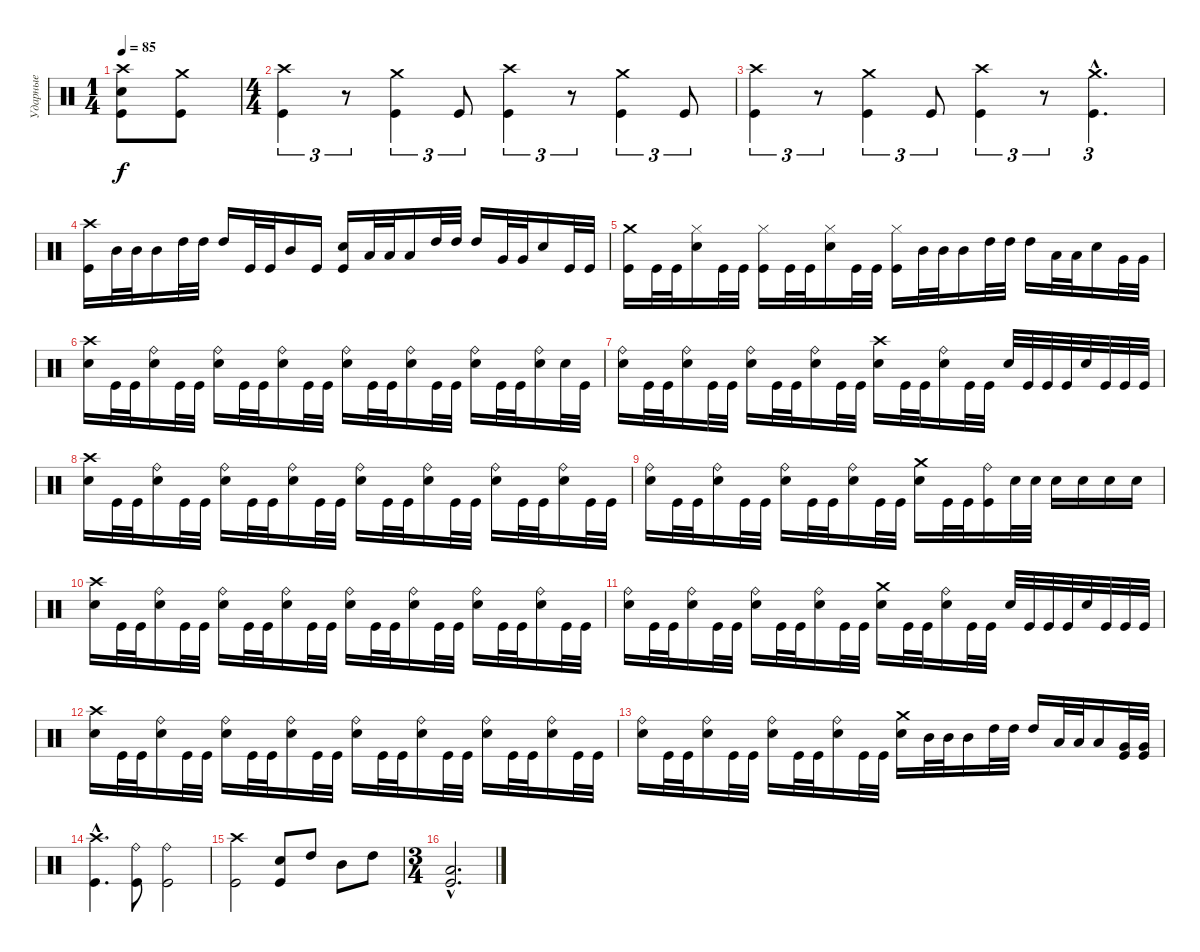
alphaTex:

\track ("Ударные" "Ударные") {instrument percussion}
\staff {score}
\articulation defaults
\ts (1 4)
\tempo 85
\clef neutral
\ks c
("Crash high (hit)" "Electric Snare (hit)" "Kick (hit)").8{dy f} ("Crash medium (hit)" "Kick (hit)").8 |
\ts (4 4)
("Crash high (hit)" "Kick (hit)").4{tu (3 2)} r.8{tu (3 2)} ("Crash medium (hit)" "Kick (hit)").4{tu (3 2)} "Kick (hit)".8{tu (3 2)} ("Crash high (hit)" "Kick (hit)").4{tu (3 2)} r.8{tu (3 2)} ("Crash medium (hit)" "Kick (hit)").4{tu (3 2)} "Kick (hit)".8{tu (3 2)} |
("Crash high (hit)" "Kick (hit)").4{tu (3 2)} r.8{tu (3 2)} ("Crash medium (hit)" "Kick (hit)").4{tu (3 2)} "Kick (hit)".8{tu (3 2)} ("Crash high (hit)" "Kick (hit)").4{tu (3 2)} r.8{tu (3 2)} ("Crash medium (hit)"{hac} "Kick (hit)"{hac}).4{d tu (3 2)} |
("Crash high (hit)" "Kick (hit)").16 "Mid Tom (hit)".32 "Mid Tom (hit)".32 "Mid Tom (hit)".16 "High Tom (hit)".32 "High Tom (hit)".32 "High Tom (hit)".16 "Kick (hit)".32 "Kick (hit)".32 "Mid Tom (hit)".16 "Kick (hit)".16 ("Electric Snare (hit)" "Kick (hit)").16 "Low Tom (hit)".32 "Low Tom (hit)".32 "Low Tom (hit)".16 "High Tom (hit)".32 "High Tom (hit)".32 "High Tom (hit)".16 "Very Low Tom (hit)".32 "Very Low Tom (hit)".32 "Electric Snare (hit)".16 "Kick (hit)".32 "Kick (hit)".32 |
("Crash medium (hit)" "Kick (hit)").16 "Kick (hit)".32 "Kick (hit)".32 ("Hi-Hat (closed)" "Electric Snare (hit)").16 "Kick (hit)".32 "Kick (hit)".32 ("Hi-Hat (closed)" "Kick (hit)").16 "Kick (hit)".32 "Kick (hit)".32 ("Hi-Hat (closed)" "Electric Snare (hit)").16 "Kick (hit)".32 "Kick (hit)".32 ("Hi-Hat (closed)" "Kick (hit)").16 "Mid Tom (hit)".32 "Mid Tom (hit)".32 "Mid Tom (hit)".16 "High Tom (hit)".32 "High Tom (hit)".32 "High Tom (hit)".16 "Low Tom (hit)".32 "Low Tom (hit)".32 "Electric Snare (hit)".16 "Very Low Tom (hit)".32 "Very Low Tom (hit)".32 |
("Crash high (hit)" "Electric Snare (hit)").16 "Kick (hit)".32 "Kick (hit)".32 ("Ride (bell)" "Electric Snare (hit)").16 "Kick (hit)".32 "Kick (hit)".32 ("Ride (bell)" "Electric Snare (hit)").16 "Kick (hit)".32 "Kick (hit)".32 ("Ride (bell)" "Electric Snare (hit)").16 "Kick (hit)".32 "Kick (hit)".32 ("Ride (bell)" "Electric Snare (hit)").16 "Kick (hit)".32 "Kick (hit)".32 ("Ride (bell)" "Electric Snare (hit)").16 "Kick (hit)".32 "Kick (hit)".32 ("Ride (bell)" "Electric Snare (hit)").16 "Kick (hit)".32 "Kick (hit)".32 ("Ride (bell)" "Electric Snare (hit)").16 "Electric Snare (hit)".32 "Kick (hit)".32 |
("Ride (bell)" "Electric Snare (hit)").16 "Kick (hit)".32 "Kick (hit)".32 ("Ride (bell)" "Electric Snare (hit)").16 "Kick (hit)".32 "Kick (hit)".32 ("Ride (bell)" "Electric Snare (hit)").16 "Kick (hit)".32 "Kick (hit)".32 ("Ride (bell)" "Electric Snare (hit)").16 "Kick (hit)".32 "Kick (hit)".32 ("Crash high (hit)" "Electric Snare (hit)").16 "Kick (hit)".32 "Kick (hit)".32 ("Ride (bell)" "Electric Snare (hit)").16 "Kick (hit)".32 "Kick (hit)".32 "Electric Snare (hit)".32 "Kick (hit)".32 "Kick (hit)".32 "Kick (hit)".32 "Electric Snare (hit)".32 "Kick (hit)".32 "Kick (hit)".32 "Kick (hit)".32 |
("Crash high (hit)" "Electric Snare (hit)").16 "Kick (hit)".32 "Kick (hit)".32 ("Ride (bell)" "Electric Snare (hit)").16 "Kick (hit)".32 "Kick (hit)".32 ("Ride (bell)" "Electric Snare (hit)").16 "Kick (hit)".32 "Kick (hit)".32 ("Ride (bell)" "Electric Snare (hit)").16 "Kick (hit)".32 "Kick (hit)".32 ("Ride (bell)" "Electric Snare (hit)").16 "Kick (hit)".32 "Kick (hit)".32 ("Ride (bell)" "Electric Snare (hit)").16 "Kick (hit)".32 "Kick (hit)".32 ("Ride (bell)" "Electric Snare (hit)").16 "Kick (hit)".32 "Kick (hit)".32 ("Ride (bell)" "Electric Snare (hit)").16 "Kick (hit)".32 "Kick (hit)".32 |
("Ride (bell)" "Electric Snare (hit)").16 "Kick (hit)".32 "Kick (hit)".32 ("Ride (bell)" "Electric Snare (hit)").16 "Kick (hit)".32 "Kick (hit)".32 ("Ride (bell)" "Electric Snare (hit)").16 "Kick (hit)".32 "Kick (hit)".32 ("Ride (bell)" "Electric Snare (hit)").16 "Kick (hit)".32 "Kick (hit)".32 ("Crash medium (hit)" "Electric Snare (hit)").16 "Kick (hit)".32 "Kick (hit)".32 ("Ride (bell)" "Kick (hit)").16 "Electric Snare (hit)".32 "Electric Snare (hit)".32 "Electric Snare (hit)".16 "Electric Snare (hit)".16 "Electric Snare (hit)".16 "Electric Snare (hit)".16 |
("Crash high (hit)" "Electric Snare (hit)").16 "Kick (hit)".32 "Kick (hit)".32 ("Ride (bell)" "Electric Snare (hit)").16 "Kick (hit)".32 "Kick (hit)".32 ("Ride (bell)" "Electric Snare (hit)").16 "Kick (hit)".32 "Kick (hit)".32 ("Ride (bell)" "Electric Snare (hit)").16 "Kick (hit)".32 "Kick (hit)".32 ("Ride (bell)" "Electric Snare (hit)").16 "Kick (hit)".32 "Kick (hit)".32 ("Ride (bell)" "Electric Snare (hit)").16 "Kick (hit)".32 "Kick (hit)".32 ("Ride (bell)" "Electric Snare (hit)").16 "Kick (hit)".32 "Kick (hit)".32 ("Ride (bell)" "Electric Snare (hit)").16 "Kick (hit)".32 "Kick (hit)".32 |
("Ride (bell)" "Electric Snare (hit)").16 "Kick (hit)".32 "Kick (hit)".32 ("Ride (bell)" "Electric Snare (hit)").16 "Kick (hit)".32 "Kick (hit)".32 ("Ride (bell)" "Electric Snare (hit)").16 "Kick (hit)".32 "Kick (hit)".32 ("Ride (bell)" "Electric Snare (hit)").16 "Kick (hit)".32 "Kick (hit)".32 ("Crash medium (hit)" "Electric Snare (hit)").16 "Kick (hit)".32 "Kick (hit)".32 ("Ride (bell)" "Electric Snare (hit)").16 "Kick (hit)".32 "Kick (hit)".32 "Electric Snare (hit)".32 "Kick (hit)".32 "Kick (hit)".32 "Kick (hit)".32 "Electric Snare (hit)".32 "Kick (hit)".32 "Kick (hit)".32 "Kick (hit)".32 |
("Crash high (hit)" "Electric Snare (hit)").16 "Kick (hit)".32 "Kick (hit)".32 ("Ride (bell)" "Electric Snare (hit)").16 "Kick (hit)".32 "Kick (hit)".32 ("Ride (bell)" "Electric Snare (hit)").16 "Kick (hit)".32 "Kick (hit)".32 ("Ride (bell)" "Electric Snare (hit)").16 "Kick (hit)".32 "Kick (hit)".32 ("Ride (bell)" "Electric Snare (hit)").16 "Kick (hit)".32 "Kick (hit)".32 ("Ride (bell)" "Electric Snare (hit)").16 "Kick (hit)".32 "Kick (hit)".32 ("Ride (bell)" "Electric Snare (hit)").16 "Kick (hit)".32 "Kick (hit)".32 ("Ride (bell)" "Electric Snare (hit)").16 "Kick (hit)".32 "Kick (hit)".32 |
("Ride (bell)" "Electric Snare (hit)").16 "Kick (hit)".32 "Kick (hit)".32 ("Ride (bell)" "Electric Snare (hit)").16 "Kick (hit)".32 "Kick (hit)".32 ("Ride (bell)" "Electric Snare (hit)").16 "Kick (hit)".32 "Kick (hit)".32 ("Ride (bell)" "Electric Snare (hit)").16 "Kick (hit)".32 "Kick (hit)".32 ("Crash medium (hit)" "Electric Snare (hit)").16 "Mid Tom (hit)".32 "Mid Tom (hit)".32 "Mid Tom (hit)".16 "High Tom (hit)".32 "High Tom (hit)".32 "High Tom (hit)".16 "Low Tom (hit)".32 "Low Tom (hit)".32 "Low Tom (hit)".16 ("Very Low Tom (hit)" "Kick (hit)").32 ("Very Low Tom (hit)" "Kick (hit)").32 |
("Crash high (hit)"{hac} "Kick (hit)"{hac}).4{d} ("Ride (bell)" "Kick (hit)").8 ("Ride (bell)" "Kick (hit)").2 |
("Crash high (hit)" "Kick (hit)").2 ("Electric Snare (hit)" "Kick (hit)").8 "High Tom (hit)".8 "Mid Tom (hit)".8 "High Tom (hit)".8 |
\ts (3 4)
("Low Tom (hit)"{hac} "Kick (hit)"{hac}).2{d}
